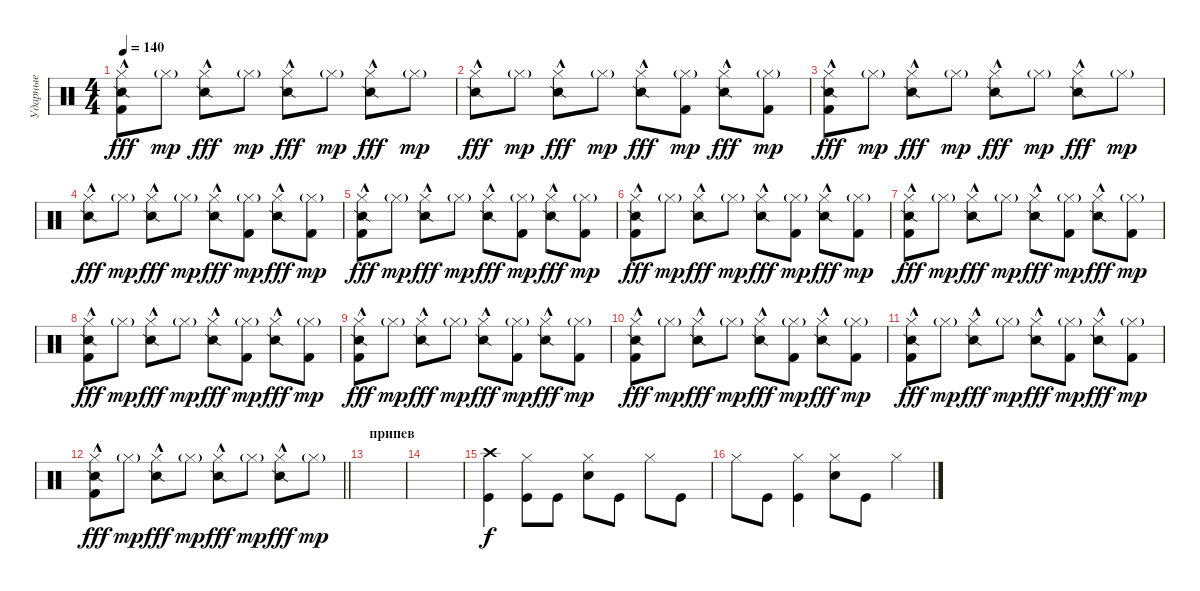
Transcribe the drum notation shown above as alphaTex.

\track ("Ударные" "Ударные") {instrument percussion}
\staff {score}
\articulation defaults
\ts (4 4)
\tempo 140
\clef neutral
\ks c
("Hi-Hat (closed)"{hac} "Snare (side stick) 2" "Kick (hit) 2").8{dy fff} "Hi-Hat (closed)"{g}.8{dy mp} ("Hi-Hat (closed)"{hac} "Snare (side stick) 2").8{dy fff} "Hi-Hat (closed)"{g}.8{dy mp} ("Hi-Hat (closed)"{hac} "Snare (side stick) 2").8{dy fff} "Hi-Hat (closed)"{g}.8{dy mp} ("Hi-Hat (closed)"{hac} "Snare (side stick) 2").8{dy fff} "Hi-Hat (closed)"{g}.8{dy mp} |
("Hi-Hat (closed)"{hac} "Snare (side stick) 2").8{dy fff} "Hi-Hat (closed)"{g}.8{dy mp} ("Hi-Hat (closed)"{hac} "Snare (side stick) 2").8{dy fff} "Hi-Hat (closed)"{g}.8{dy mp} ("Hi-Hat (closed)"{hac} "Snare (side stick) 2").8{dy fff} ("Hi-Hat (closed)"{g} "Kick (hit) 2").8{dy mp} ("Hi-Hat (closed)"{hac} "Snare (side stick) 2").8{dy fff} ("Hi-Hat (closed)"{g} "Kick (hit) 2").8{dy mp} |
("Hi-Hat (closed)"{hac} "Snare (side stick) 2" "Kick (hit) 2").8{dy fff} "Hi-Hat (closed)"{g}.8{dy mp} ("Hi-Hat (closed)"{hac} "Snare (side stick) 2").8{dy fff} "Hi-Hat (closed)"{g}.8{dy mp} ("Hi-Hat (closed)"{hac} "Snare (side stick) 2").8{dy fff} "Hi-Hat (closed)"{g}.8{dy mp} ("Hi-Hat (closed)"{hac} "Snare (side stick) 2").8{dy fff} "Hi-Hat (closed)"{g}.8{dy mp} |
("Hi-Hat (closed)"{hac} "Snare (side stick) 2").8{dy fff} "Hi-Hat (closed)"{g}.8{dy mp} ("Hi-Hat (closed)"{hac} "Snare (side stick) 2").8{dy fff} "Hi-Hat (closed)"{g}.8{dy mp} ("Hi-Hat (closed)"{hac} "Snare (side stick) 2").8{dy fff} ("Hi-Hat (closed)"{g} "Kick (hit) 2").8{dy mp} ("Hi-Hat (closed)"{hac} "Snare (side stick) 2").8{dy fff} ("Hi-Hat (closed)"{g} "Kick (hit) 2").8{dy mp} |
("Hi-Hat (closed)"{hac} "Snare (side stick) 2" "Kick (hit) 2").8{dy fff} "Hi-Hat (closed)"{g}.8{dy mp} ("Hi-Hat (closed)"{hac} "Snare (side stick) 2").8{dy fff} "Hi-Hat (closed)"{g}.8{dy mp} ("Hi-Hat (closed)"{hac} "Snare (side stick) 2").8{dy fff} ("Hi-Hat (closed)"{g} "Kick (hit) 2").8{dy mp} ("Hi-Hat (closed)"{hac} "Snare (side stick) 2").8{dy fff} ("Hi-Hat (closed)"{g} "Kick (hit) 2").8{dy mp} |
("Hi-Hat (closed)"{hac} "Snare (side stick) 2" "Kick (hit) 2").8{dy fff} "Hi-Hat (closed)"{g}.8{dy mp} ("Hi-Hat (closed)"{hac} "Snare (side stick) 2").8{dy fff} "Hi-Hat (closed)"{g}.8{dy mp} ("Hi-Hat (closed)"{hac} "Snare (side stick) 2").8{dy fff} ("Hi-Hat (closed)"{g} "Kick (hit) 2").8{dy mp} ("Hi-Hat (closed)"{hac} "Snare (side stick) 2").8{dy fff} ("Hi-Hat (closed)"{g} "Kick (hit) 2").8{dy mp} |
("Hi-Hat (closed)"{hac} "Snare (side stick) 2" "Kick (hit) 2").8{dy fff} "Hi-Hat (closed)"{g}.8{dy mp} ("Hi-Hat (closed)"{hac} "Snare (side stick) 2").8{dy fff} "Hi-Hat (closed)"{g}.8{dy mp} ("Hi-Hat (closed)"{hac} "Snare (side stick) 2").8{dy fff} ("Hi-Hat (closed)"{g} "Kick (hit) 2").8{dy mp} ("Hi-Hat (closed)"{hac} "Snare (side stick) 2").8{dy fff} ("Hi-Hat (closed)"{g} "Kick (hit) 2").8{dy mp} |
("Hi-Hat (closed)"{hac} "Snare (side stick) 2" "Kick (hit) 2").8{dy fff} "Hi-Hat (closed)"{g}.8{dy mp} ("Hi-Hat (closed)"{hac} "Snare (side stick) 2").8{dy fff} "Hi-Hat (closed)"{g}.8{dy mp} ("Hi-Hat (closed)"{hac} "Snare (side stick) 2").8{dy fff} ("Hi-Hat (closed)"{g} "Kick (hit) 2").8{dy mp} ("Hi-Hat (closed)"{hac} "Snare (side stick) 2").8{dy fff} ("Hi-Hat (closed)"{g} "Kick (hit) 2").8{dy mp} |
("Hi-Hat (closed)"{hac} "Snare (side stick) 2" "Kick (hit) 2").8{dy fff} "Hi-Hat (closed)"{g}.8{dy mp} ("Hi-Hat (closed)"{hac} "Snare (side stick) 2").8{dy fff} "Hi-Hat (closed)"{g}.8{dy mp} ("Hi-Hat (closed)"{hac} "Snare (side stick) 2").8{dy fff} ("Hi-Hat (closed)"{g} "Kick (hit) 2").8{dy mp} ("Hi-Hat (closed)"{hac} "Snare (side stick) 2").8{dy fff} ("Hi-Hat (closed)"{g} "Kick (hit) 2").8{dy mp} |
("Hi-Hat (closed)"{hac} "Snare (side stick) 2" "Kick (hit) 2").8{dy fff} "Hi-Hat (closed)"{g}.8{dy mp} ("Hi-Hat (closed)"{hac} "Snare (side stick) 2").8{dy fff} "Hi-Hat (closed)"{g}.8{dy mp} ("Hi-Hat (closed)"{hac} "Snare (side stick) 2").8{dy fff} ("Hi-Hat (closed)"{g} "Kick (hit) 2").8{dy mp} ("Hi-Hat (closed)"{hac} "Snare (side stick) 2").8{dy fff} ("Hi-Hat (closed)"{g} "Kick (hit) 2").8{dy mp} |
("Hi-Hat (closed)"{hac} "Snare (side stick) 2" "Kick (hit) 2").8{dy fff} "Hi-Hat (closed)"{g}.8{dy mp} ("Hi-Hat (closed)"{hac} "Snare (side stick) 2").8{dy fff} "Hi-Hat (closed)"{g}.8{dy mp} ("Hi-Hat (closed)"{hac} "Snare (side stick) 2").8{dy fff} ("Hi-Hat (closed)"{g} "Kick (hit) 2").8{dy mp} ("Hi-Hat (closed)"{hac} "Snare (side stick) 2").8{dy fff} ("Hi-Hat (closed)"{g} "Kick (hit) 2").8{dy mp} |
\barLineRight lightlight
("Hi-Hat (closed)"{hac} "Snare (side stick) 2" "Kick (hit) 2").8{dy fff} "Hi-Hat (closed)"{g}.8{dy mp} ("Hi-Hat (closed)"{hac} "Snare (side stick) 2").8{dy fff} "Hi-Hat (closed)"{g}.8{dy mp} ("Hi-Hat (closed)"{hac} "Snare (side stick) 2").8{dy fff} "Hi-Hat (closed)"{g}.8{dy mp} ("Hi-Hat (closed)"{hac} "Snare (side stick) 2").8{dy fff} "Hi-Hat (closed)"{g}.8{dy mp} |
\section ("" "припев")
|
|
("Crash high (hit)" "Kick (hit)").4{dy f} ("Hi-Hat (closed)" "Kick (hit)").8 "Kick (hit)".8 ("Hi-Hat (closed)" "Snare (hit) 2").8 "Kick (hit)".8 "Hi-Hat (closed)".8 "Kick (hit)".8 |
"Hi-Hat (closed)".8 "Kick (hit)".8 ("Hi-Hat (closed)" "Kick (hit)").4 ("Hi-Hat (closed)" "Snare (hit) 2").8 "Kick (hit)".8 "Hi-Hat (closed)".4
